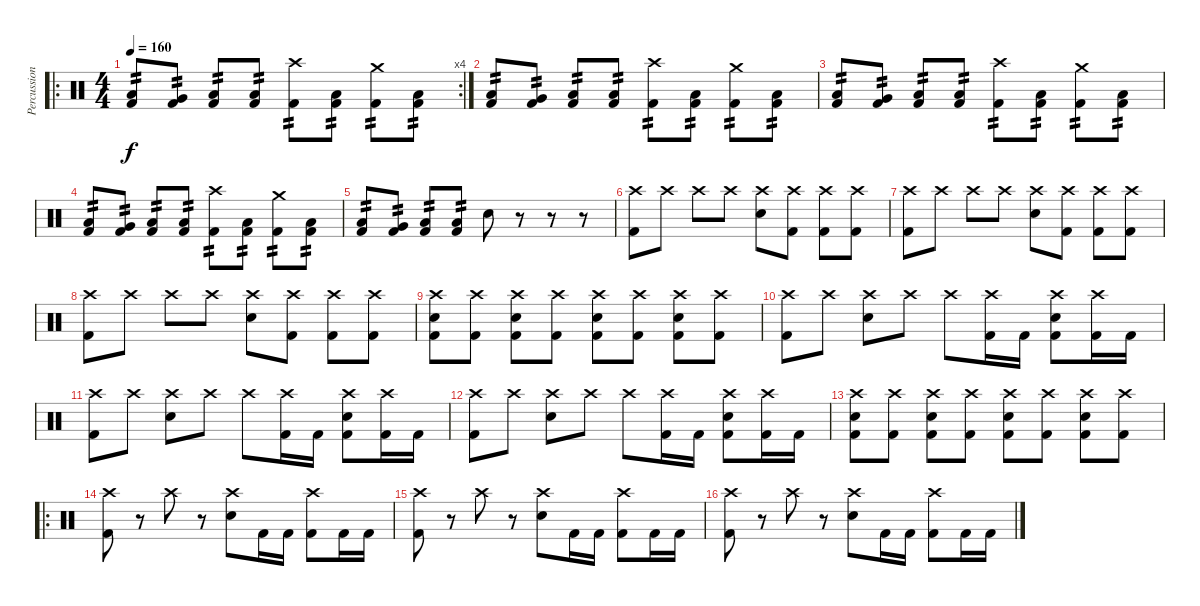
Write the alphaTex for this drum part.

\track ("Percussion" "Percussion") {instrument percussion}
\staff {score}
\articulation defaults
\ro
\rc 4
\ts (4 4)
\tempo 160
\clef neutral
\ks c
("Low Tom (hit)" "Kick (hit) 2").8{tp 2 dy f} ("Very Low Tom (hit)" "Kick (hit) 2").8{tp 2} ("Low Floor Tom (hit)" "Kick (hit) 2").8{tp 2} ("Low Floor Tom (hit)" "Kick (hit) 2").8{tp 2} ("Crash high (hit)" "Kick (hit) 2").8{tp 2} ("Low Floor Tom (hit)" "Kick (hit) 2").8{tp 2} ("Crash medium (hit)" "Kick (hit) 2").8{tp 2} ("Low Floor Tom (hit)" "Kick (hit) 2").8{tp 2} |
("Low Tom (hit)" "Kick (hit) 2").8{tp 2} ("Very Low Tom (hit)" "Kick (hit) 2").8{tp 2} ("Low Floor Tom (hit)" "Kick (hit) 2").8{tp 2} ("Low Floor Tom (hit)" "Kick (hit) 2").8{tp 2} ("Crash high (hit)" "Kick (hit) 2").8{tp 2} ("Low Floor Tom (hit)" "Kick (hit) 2").8{tp 2} ("Crash medium (hit)" "Kick (hit) 2").8{tp 2} ("Low Floor Tom (hit)" "Kick (hit) 2").8{tp 2} |
("Low Tom (hit)" "Kick (hit) 2").8{tp 2} ("Very Low Tom (hit)" "Kick (hit) 2").8{tp 2} ("Low Floor Tom (hit)" "Kick (hit) 2").8{tp 2} ("Low Floor Tom (hit)" "Kick (hit) 2").8{tp 2} ("Crash high (hit)" "Kick (hit) 2").8{tp 2} ("Low Floor Tom (hit)" "Kick (hit) 2").8{tp 2} ("Crash medium (hit)" "Kick (hit) 2").8{tp 2} ("Low Floor Tom (hit)" "Kick (hit) 2").8{tp 2} |
("Low Tom (hit)" "Kick (hit) 2").8{tp 2} ("Very Low Tom (hit)" "Kick (hit) 2").8{tp 2} ("Low Floor Tom (hit)" "Kick (hit) 2").8{tp 2} ("Low Floor Tom (hit)" "Kick (hit) 2").8{tp 2} ("Crash high (hit)" "Kick (hit) 2").8{tp 2} ("Low Floor Tom (hit)" "Kick (hit) 2").8{tp 2} ("Crash medium (hit)" "Kick (hit) 2").8{tp 2} ("Low Floor Tom (hit)" "Kick (hit) 2").8{tp 2} |
("Low Tom (hit)" "Kick (hit) 2").8{tp 2} ("Very Low Tom (hit)" "Kick (hit) 2").8{tp 2} ("Low Floor Tom (hit)" "Kick (hit) 2").8{tp 2} ("Low Floor Tom (hit)" "Kick (hit) 2").8{tp 2} "Snare (hit) 2".8 r.8 r.8 r.8 |
("Crash high (hit)" "Kick (hit) 2").8 "Crash high (hit)".8 "Crash high (hit)".8 "Crash high (hit)".8 ("Crash high (hit)" "Snare (hit) 2").8 ("Crash high (hit)" "Kick (hit) 2").8 ("Crash high (hit)" "Kick (hit) 2").8 ("Crash high (hit)" "Kick (hit) 2").8 |
("Crash high (hit)" "Kick (hit) 2").8 "Crash high (hit)".8 "Crash high (hit)".8 "Crash high (hit)".8 ("Crash high (hit)" "Snare (hit) 2").8 ("Crash high (hit)" "Kick (hit) 2").8 ("Crash high (hit)" "Kick (hit) 2").8 ("Crash high (hit)" "Kick (hit) 2").8 |
("Crash high (hit)" "Kick (hit) 2").8 "Crash high (hit)".8 "Crash high (hit)".8 "Crash high (hit)".8 ("Crash high (hit)" "Snare (hit) 2").8 ("Crash high (hit)" "Kick (hit) 2").8 ("Crash high (hit)" "Kick (hit) 2").8 ("Crash high (hit)" "Kick (hit) 2").8 |
("Crash high (hit)" "Snare (hit) 2" "Kick (hit) 2").8 ("Crash high (hit)" "Kick (hit) 2").8 ("Crash high (hit)" "Snare (hit) 2" "Kick (hit) 2").8 ("Crash high (hit)" "Kick (hit) 2").8 ("Crash high (hit)" "Snare (hit) 2" "Kick (hit) 2").8 ("Crash high (hit)" "Kick (hit) 2").8 ("Crash high (hit)" "Snare (hit) 2" "Kick (hit) 2").8 ("Crash high (hit)" "Kick (hit) 2").8 |
("Crash high (hit)" "Kick (hit) 2").8 "Crash high (hit)".8 ("Crash high (hit)" "Snare (hit) 2").8 "Crash high (hit)".8 "Crash high (hit)".8 ("Crash high (hit)" "Kick (hit) 2").16 "Kick (hit) 2".16 ("Crash high (hit)" "Snare (hit) 2" "Kick (hit) 2").8 ("Crash high (hit)" "Kick (hit) 2").16 "Kick (hit) 2".16 |
("Crash high (hit)" "Kick (hit) 2").8 "Crash high (hit)".8 ("Crash high (hit)" "Snare (hit) 2").8 "Crash high (hit)".8 "Crash high (hit)".8 ("Crash high (hit)" "Kick (hit) 2").16 "Kick (hit) 2".16 ("Crash high (hit)" "Snare (hit) 2" "Kick (hit) 2").8 ("Crash high (hit)" "Kick (hit) 2").16 "Kick (hit) 2".16 |
("Crash high (hit)" "Kick (hit) 2").8 "Crash high (hit)".8 ("Crash high (hit)" "Snare (hit) 2").8 "Crash high (hit)".8 "Crash high (hit)".8 ("Crash high (hit)" "Kick (hit) 2").16 "Kick (hit) 2".16 ("Crash high (hit)" "Snare (hit) 2" "Kick (hit) 2").8 ("Crash high (hit)" "Kick (hit) 2").16 "Kick (hit) 2".16 |
("Crash high (hit)" "Snare (hit) 2" "Kick (hit) 2").8 ("Crash high (hit)" "Kick (hit) 2").8 ("Crash high (hit)" "Snare (hit) 2" "Kick (hit) 2").8 ("Crash high (hit)" "Kick (hit) 2").8 ("Crash high (hit)" "Snare (hit) 2" "Kick (hit) 2").8 ("Crash high (hit)" "Kick (hit) 2").8 ("Crash high (hit)" "Snare (hit) 2" "Kick (hit) 2").8 ("Crash high (hit)" "Kick (hit) 2").8 |
\ro
("Crash high (hit)" "Kick (hit) 2").8 r.8 "Crash high (hit)".8 r.8 ("Crash high (hit)" "Snare (hit) 2").8 "Kick (hit) 2".16 "Kick (hit) 2".16 ("Crash high (hit)" "Kick (hit) 2").8 "Kick (hit) 2".16 "Kick (hit) 2".16 |
("Crash high (hit)" "Kick (hit) 2").8 r.8 "Crash high (hit)".8 r.8 ("Crash high (hit)" "Snare (hit) 2").8 "Kick (hit) 2".16 "Kick (hit) 2".16 ("Crash high (hit)" "Kick (hit) 2").8 "Kick (hit) 2".16 "Kick (hit) 2".16 |
("Crash high (hit)" "Kick (hit) 2").8 r.8 "Crash high (hit)".8 r.8 ("Crash high (hit)" "Snare (hit) 2").8 "Kick (hit) 2".16 "Kick (hit) 2".16 ("Crash high (hit)" "Kick (hit) 2").8 "Kick (hit) 2".16 "Kick (hit) 2".16
